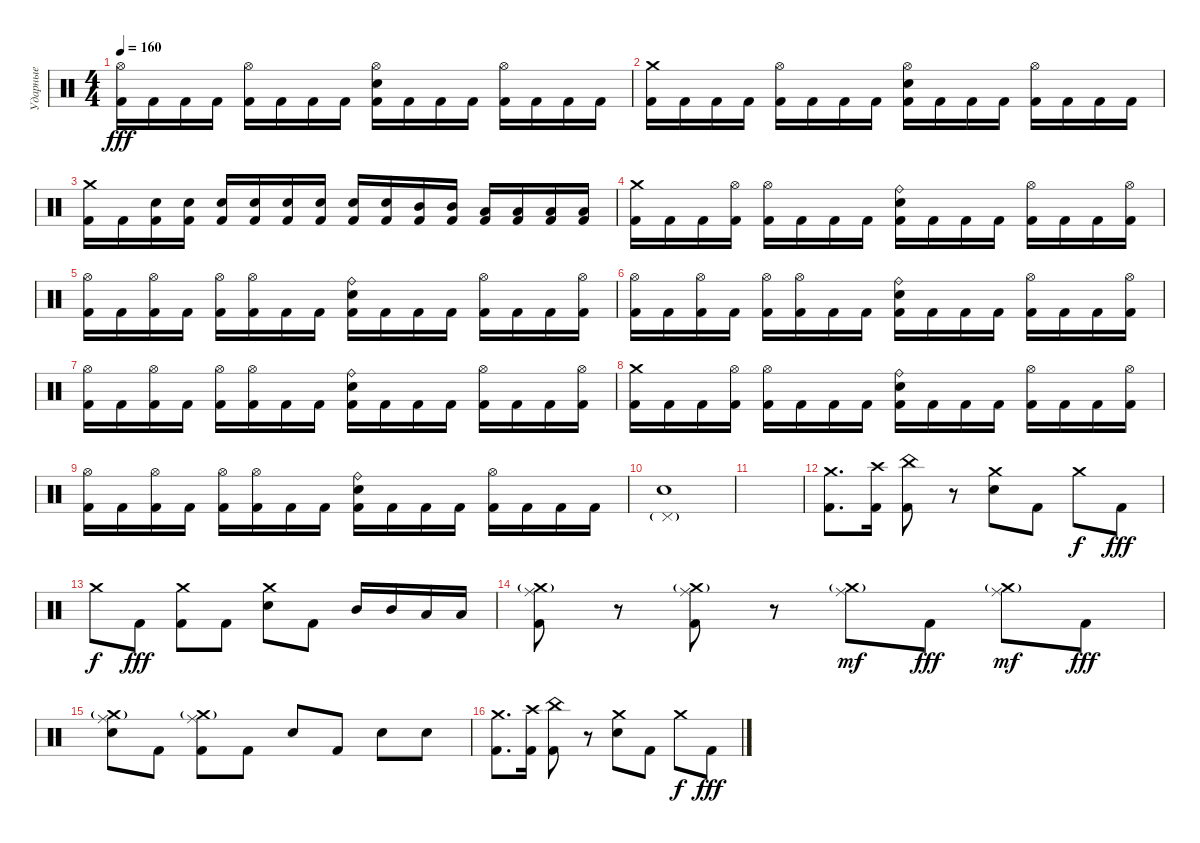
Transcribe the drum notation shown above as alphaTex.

\track ("Ударные" "Ударные") {instrument percussion}
\staff {score}
\articulation defaults
\ts (4 4)
\tempo 160
\clef neutral
\ks c
("Hi-Hat (open)" "Kick (hit) 2").16{dy fff} "Kick (hit) 2".16 "Kick (hit) 2".16 "Kick (hit) 2".16 ("Hi-Hat (open)" "Kick (hit) 2").16 "Kick (hit) 2".16 "Kick (hit) 2".16 "Kick (hit) 2".16 ("Hi-Hat (open)" "Electric Snare (hit)" "Kick (hit) 2").16 "Kick (hit) 2".16 "Kick (hit) 2".16 "Kick (hit) 2".16 ("Hi-Hat (open)" "Kick (hit) 2").16 "Kick (hit) 2".16 "Kick (hit) 2".16 "Kick (hit) 2".16 |
("Crash medium (hit)" "Kick (hit) 2").16 "Kick (hit) 2".16 "Kick (hit) 2".16 "Kick (hit) 2".16 ("Hi-Hat (open)" "Kick (hit) 2").16 "Kick (hit) 2".16 "Kick (hit) 2".16 "Kick (hit) 2".16 ("Hi-Hat (open)" "Electric Snare (hit)" "Kick (hit) 2").16 "Kick (hit) 2".16 "Kick (hit) 2".16 "Kick (hit) 2".16 ("Hi-Hat (open)" "Kick (hit) 2").16 "Kick (hit) 2".16 "Kick (hit) 2".16 "Kick (hit) 2".16 |
("Crash medium (hit)" "Kick (hit) 2").16 "Kick (hit) 2".16 ("Electric Snare (hit)" "Kick (hit) 2").16 ("Electric Snare (hit)" "Kick (hit) 2").16 ("Electric Snare (hit)" "Kick (hit) 2").16 ("Electric Snare (hit)" "Kick (hit) 2").16 ("Electric Snare (hit)" "Kick (hit) 2").16 ("Electric Snare (hit)" "Kick (hit) 2").16 ("Electric Snare (hit)" "Kick (hit) 2").16 ("Electric Snare (hit)" "Kick (hit) 2").16 ("Mid Tom (hit)" "Kick (hit) 2").16 ("Mid Tom (hit)" "Kick (hit) 2").16 ("Low Tom (hit)" "Kick (hit) 2").16 ("Low Tom (hit)" "Kick (hit) 2").16 ("Low Floor Tom (hit)" "Kick (hit) 2").16 ("Low Floor Tom (hit)" "Kick (hit) 2").16 |
("Crash medium (hit)" "Kick (hit) 2").16 "Kick (hit) 2".16 "Kick (hit) 2".16 ("Hi-Hat (open)" "Kick (hit) 2").16 ("Hi-Hat (open)" "Kick (hit) 2").16 "Kick (hit) 2".16 "Kick (hit) 2".16 "Kick (hit) 2".16 ("Ride (bell)" "Electric Snare (hit)" "Kick (hit) 2").16 "Kick (hit) 2".16 "Kick (hit) 2".16 "Kick (hit) 2".16 ("Hi-Hat (open)" "Kick (hit) 2").16 "Kick (hit) 2".16 "Kick (hit) 2".16 ("Hi-Hat (open)" "Kick (hit) 2").16 |
("Hi-Hat (open)" "Kick (hit) 2").16 "Kick (hit) 2".16 ("Hi-Hat (open)" "Kick (hit) 2").16 "Kick (hit) 2".16 ("Hi-Hat (open)" "Kick (hit) 2").16 ("Hi-Hat (open)" "Kick (hit) 2").16 "Kick (hit) 2".16 "Kick (hit) 2".16 ("Ride (bell)" "Electric Snare (hit)" "Kick (hit) 2").16 "Kick (hit) 2".16 "Kick (hit) 2".16 "Kick (hit) 2".16 ("Hi-Hat (open)" "Kick (hit) 2").16 "Kick (hit) 2".16 "Kick (hit) 2".16 ("Hi-Hat (open)" "Kick (hit) 2").16 |
("Hi-Hat (open)" "Kick (hit) 2").16 "Kick (hit) 2".16 ("Hi-Hat (open)" "Kick (hit) 2").16 "Kick (hit) 2".16 ("Hi-Hat (open)" "Kick (hit) 2").16 ("Hi-Hat (open)" "Kick (hit) 2").16 "Kick (hit) 2".16 "Kick (hit) 2".16 ("Ride (bell)" "Electric Snare (hit)" "Kick (hit) 2").16 "Kick (hit) 2".16 "Kick (hit) 2".16 "Kick (hit) 2".16 ("Hi-Hat (open)" "Kick (hit) 2").16 "Kick (hit) 2".16 "Kick (hit) 2".16 ("Hi-Hat (open)" "Kick (hit) 2").16 |
("Hi-Hat (open)" "Kick (hit) 2").16 "Kick (hit) 2".16 ("Hi-Hat (open)" "Kick (hit) 2").16 "Kick (hit) 2".16 ("Hi-Hat (open)" "Kick (hit) 2").16 ("Hi-Hat (open)" "Kick (hit) 2").16 "Kick (hit) 2".16 "Kick (hit) 2".16 ("Ride (bell)" "Electric Snare (hit)" "Kick (hit) 2").16 "Kick (hit) 2".16 "Kick (hit) 2".16 "Kick (hit) 2".16 ("Hi-Hat (open)" "Kick (hit) 2").16 "Kick (hit) 2".16 "Kick (hit) 2".16 ("Hi-Hat (open)" "Kick (hit) 2").16 |
("Crash medium (hit)" "Kick (hit) 2").16 "Kick (hit) 2".16 "Kick (hit) 2".16 ("Hi-Hat (open)" "Kick (hit) 2").16 ("Hi-Hat (open)" "Kick (hit) 2").16 "Kick (hit) 2".16 "Kick (hit) 2".16 "Kick (hit) 2".16 ("Ride (bell)" "Electric Snare (hit)" "Kick (hit) 2").16 "Kick (hit) 2".16 "Kick (hit) 2".16 "Kick (hit) 2".16 ("Hi-Hat (open)" "Kick (hit) 2").16 "Kick (hit) 2".16 "Kick (hit) 2".16 ("Hi-Hat (open)" "Kick (hit) 2").16 |
("Hi-Hat (open)" "Kick (hit) 2").16 "Kick (hit) 2".16 ("Hi-Hat (open)" "Kick (hit) 2").16 "Kick (hit) 2".16 ("Hi-Hat (open)" "Kick (hit) 2").16 ("Hi-Hat (open)" "Kick (hit) 2").16 "Kick (hit) 2".16 "Kick (hit) 2".16 ("Ride (bell)" "Electric Snare (hit)" "Kick (hit) 2").16 "Kick (hit) 2".16 "Kick (hit) 2".16 "Kick (hit) 2".16 ("Hi-Hat (open)" "Kick (hit) 2").16 "Kick (hit) 2".16 "Kick (hit) 2".16 "Kick (hit) 2".16 |
("Pedal Hi-Hat (hit)"{g} "Electric Snare (hit)").1 |
|
("Crash medium (hit)" "Kick (hit) 2").8{d} ("Crash high (hit)" "Kick (hit) 2").16 ("China (hit)" "Kick (hit) 2").8 r.8 ("Crash medium (hit)" "Electric Snare (hit)").8 "Kick (hit) 2".8 "Crash medium (hit)".8{dy f} "Kick (hit) 2".8{dy fff} |
"Crash medium (hit)".8{dy f} "Kick (hit) 2".8{dy fff} ("Crash medium (hit)" "Kick (hit) 2").8 "Kick (hit) 2".8 ("Crash medium (hit)" "Electric Snare (hit)").8 "Kick (hit) 2".8 "Mid Tom (hit)".16 "Mid Tom (hit)".16 "Low Tom (hit)".16 "Low Tom (hit)".16 |
("Crash medium (hit)"{g} "Ride (middle)" "Kick (hit) 2").8 r.8 ("Crash medium (hit)"{g} "Ride (middle)" "Kick (hit) 2").8 r.8 ("Crash medium (hit)"{g} "Ride (middle)").8{dy mf} "Kick (hit) 2".8{dy fff} ("Crash medium (hit)"{g} "Ride (middle)").8{dy mf} "Kick (hit) 2".8{dy fff} |
("Crash medium (hit)"{g} "Ride (middle)" "Electric Snare (hit)").8 "Kick (hit) 2".8 ("Crash medium (hit)"{g} "Ride (middle)" "Kick (hit) 2").8 "Kick (hit) 2".8 "Electric Snare (hit)".8 "Kick (hit) 2".8 "Electric Snare (hit)".8 "Electric Snare (hit)".8 |
("Crash medium (hit)" "Kick (hit) 2").8{d} ("Crash high (hit)" "Kick (hit) 2").16 ("China (hit)" "Kick (hit) 2").8 r.8 ("Crash medium (hit)" "Electric Snare (hit)").8 "Kick (hit) 2".8 "Crash medium (hit)".8{dy f} "Kick (hit) 2".8{dy fff}
